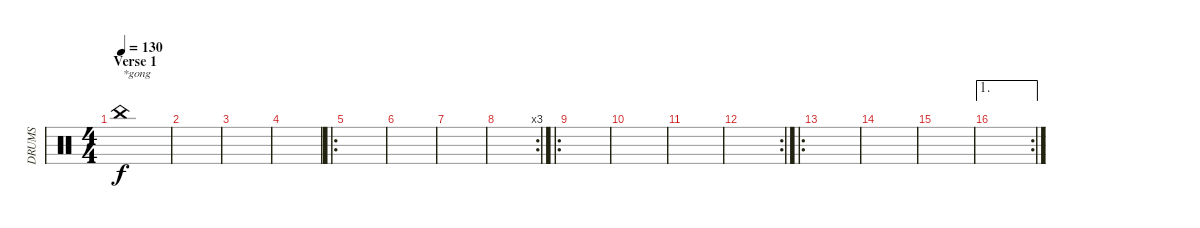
\track ("DRUMS" "DRUMS") {instrument percussion}
\staff {score}
\articulation defaults
\ts (4 4)
\section ("" "Verse 1")
\tempo 130
\clef neutral
\ks c "China (hit)".1{txt "*gong" dy f}
|
|
|
|
\ro
|
|
|
\rc 3
|
\ro
|
|
|
\rc 2
|
\ro
|
|
|
\ae 1
\rc 2
